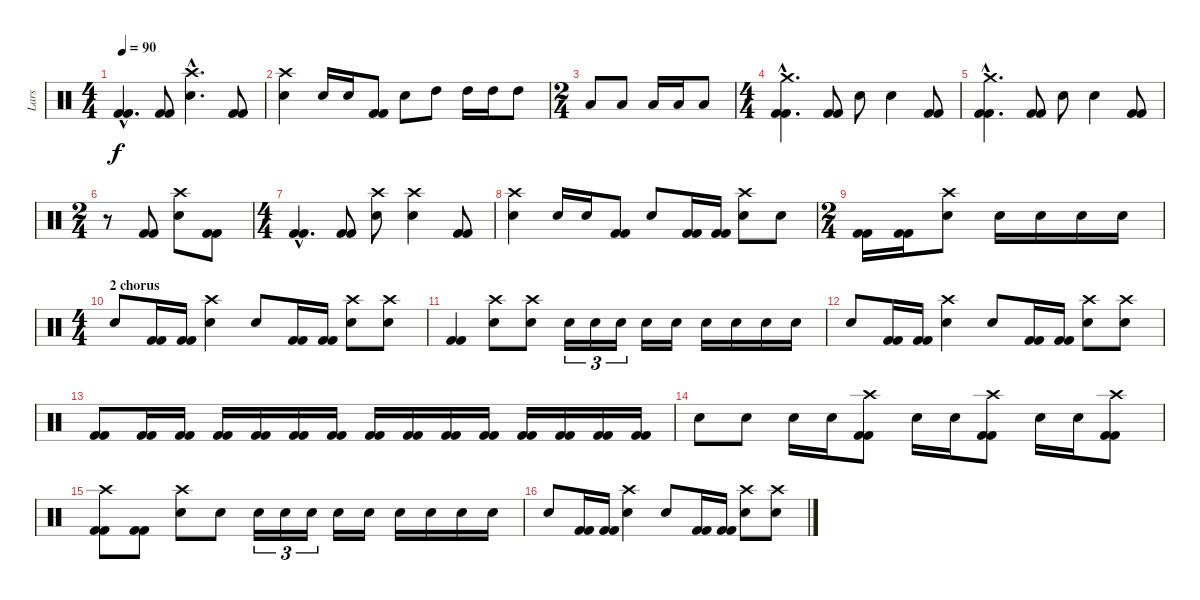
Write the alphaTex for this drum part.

\track ("Lars" "Lars") {instrument percussion}
\staff {score}
\articulation defaults
\ts (4 4)
\tempo 90
\clef neutral
\ks c
("Kick (hit) 2"{hac} "Kick (hit) 2"{hac}).4{d dy f} ("Kick (hit) 2" "Kick (hit) 2").8 ("Snare (hit) 2"{hac} "Crash high (hit)"{hac}).4{d} ("Kick (hit) 2" "Kick (hit) 2").8 |
("Snare (hit) 2" "Crash high (hit)").4 "Snare (hit) 2".16 "Snare (hit) 2".16 ("Kick (hit) 2" "Kick (hit) 2").8 "Snare (hit) 2".8 "High Tom (hit)".8 "High Tom (hit)".16 "High Tom (hit)".16 "High Tom (hit)".8 |
\ts (2 4)
"Low Floor Tom (hit)".8 "Low Floor Tom (hit)".8 "Low Floor Tom (hit)".16 "Low Floor Tom (hit)".16 "Low Floor Tom (hit)".8 |
\ts (4 4)
("Crash medium (hit)"{hac} "Kick (hit) 2"{hac} "Kick (hit) 2"{hac}).4{d} ("Kick (hit) 2" "Kick (hit) 2").8 "Snare (hit) 2".8 "Snare (hit) 2".4 ("Kick (hit) 2" "Kick (hit) 2").8 |
("Crash medium (hit)"{hac} "Kick (hit) 2"{hac} "Kick (hit) 2"{hac}).4{d} ("Kick (hit) 2" "Kick (hit) 2").8 "Snare (hit) 2".8 "Snare (hit) 2".4 ("Kick (hit) 2" "Kick (hit) 2").8 |
\ts (2 4)
r.8 ("Kick (hit) 2" "Kick (hit) 2").8 ("Snare (hit) 2" "Crash high (hit)").8 ("Kick (hit) 2" "Kick (hit) 2").8 |
\ts (4 4)
("Kick (hit) 2"{hac} "Kick (hit) 2"{hac}).4{d} ("Kick (hit) 2" "Kick (hit) 2").8 ("Snare (hit) 2" "Crash high (hit)").8 ("Snare (hit) 2" "Crash high (hit)").4 ("Kick (hit) 2" "Kick (hit) 2").8 |
("Snare (hit) 2" "Crash high (hit)").4 "Snare (hit) 2".16 "Snare (hit) 2".16 ("Kick (hit) 2" "Kick (hit) 2").8 "Snare (hit) 2".8 ("Kick (hit) 2" "Kick (hit) 2").16 ("Kick (hit) 2" "Kick (hit) 2").16 ("Snare (hit) 2" "Crash high (hit)").8 "Snare (hit) 2".8 |
\ts (2 4)
("Kick (hit) 2" "Kick (hit) 2").16 ("Kick (hit) 2" "Kick (hit) 2").16 ("Snare (hit) 2" "Crash high (hit)").8 "Snare (hit) 2".16 "Snare (hit) 2".16 "Snare (hit) 2".16 "Snare (hit) 2".16 |
\ts (4 4)
\section ("" "2 chorus")
"Snare (hit) 2".8 ("Kick (hit) 2" "Kick (hit) 2").16 ("Kick (hit) 2" "Kick (hit) 2").16 ("Snare (hit) 2" "Crash high (hit)").4 "Snare (hit) 2".8 ("Kick (hit) 2" "Kick (hit) 2").16 ("Kick (hit) 2" "Kick (hit) 2").16 ("Snare (hit) 2" "Crash high (hit)").8 ("Crash high (hit)" "Snare (hit) 2").8 |
("Kick (hit) 2" "Kick (hit) 2").4 ("Snare (hit) 2" "Crash high (hit)").8 ("Snare (hit) 2" "Crash high (hit)").8 "Snare (hit) 2".16{tu (3 2)} "Snare (hit) 2".16{tu (3 2)} "Snare (hit) 2".16{tu (3 2)} "Snare (hit) 2".16 "Snare (hit) 2".16 "Snare (hit) 2".16 "Snare (hit) 2".16 "Snare (hit) 2".16 "Snare (hit) 2".16 |
"Snare (hit) 2".8 ("Kick (hit) 2" "Kick (hit) 2").16 ("Kick (hit) 2" "Kick (hit) 2").16 ("Snare (hit) 2" "Crash high (hit)").4 "Snare (hit) 2".8 ("Kick (hit) 2" "Kick (hit) 2").16 ("Kick (hit) 2" "Kick (hit) 2").16 ("Snare (hit) 2" "Crash high (hit)").8 ("Crash high (hit)" "Snare (hit) 2").8 |
("Kick (hit) 2" "Kick (hit) 2").8 ("Kick (hit) 2" "Kick (hit) 2").16 ("Kick (hit) 2" "Kick (hit) 2").16 ("Kick (hit) 2" "Kick (hit) 2").16 ("Kick (hit) 2" "Kick (hit) 2").16 ("Kick (hit) 2" "Kick (hit) 2").16 ("Kick (hit) 2" "Kick (hit) 2").16 ("Kick (hit) 2" "Kick (hit) 2").16 ("Kick (hit) 2" "Kick (hit) 2").16 ("Kick (hit) 2" "Kick (hit) 2").16 ("Kick (hit) 2" "Kick (hit) 2").16 ("Kick (hit) 2" "Kick (hit) 2").16 ("Kick (hit) 2" "Kick (hit) 2").16 ("Kick (hit) 2" "Kick (hit) 2").16 ("Kick (hit) 2" "Kick (hit) 2").16 |
"Snare (hit) 2".8 "Snare (hit) 2".8 "Snare (hit) 2".16 "Snare (hit) 2".16 ("Crash high (hit)" "Kick (hit) 2" "Kick (hit) 2").8 "Snare (hit) 2".16 "Snare (hit) 2".16 ("Crash high (hit)" "Kick (hit) 2" "Kick (hit) 2").8 "Snare (hit) 2".16 "Snare (hit) 2".16 ("Crash high (hit)" "Kick (hit) 2" "Kick (hit) 2").8 |
("Crash high (hit)" "Kick (hit) 2" "Kick (hit) 2").8 ("Kick (hit) 2" "Kick (hit) 2").8 ("Snare (hit) 2" "Crash high (hit)").8 "Snare (hit) 2".8 "Snare (hit) 2".16{tu (3 2)} "Snare (hit) 2".16{tu (3 2)} "Snare (hit) 2".16{tu (3 2)} "Snare (hit) 2".16 "Snare (hit) 2".16 "Snare (hit) 2".16 "Snare (hit) 2".16 "Snare (hit) 2".16 "Snare (hit) 2".16 |
"Snare (hit) 2".8 ("Kick (hit) 2" "Kick (hit) 2").16 ("Kick (hit) 2" "Kick (hit) 2").16 ("Snare (hit) 2" "Crash high (hit)").4 "Snare (hit) 2".8 ("Kick (hit) 2" "Kick (hit) 2").16 ("Kick (hit) 2" "Kick (hit) 2").16 ("Snare (hit) 2" "Crash high (hit)").8 ("Crash high (hit)" "Snare (hit) 2").8
